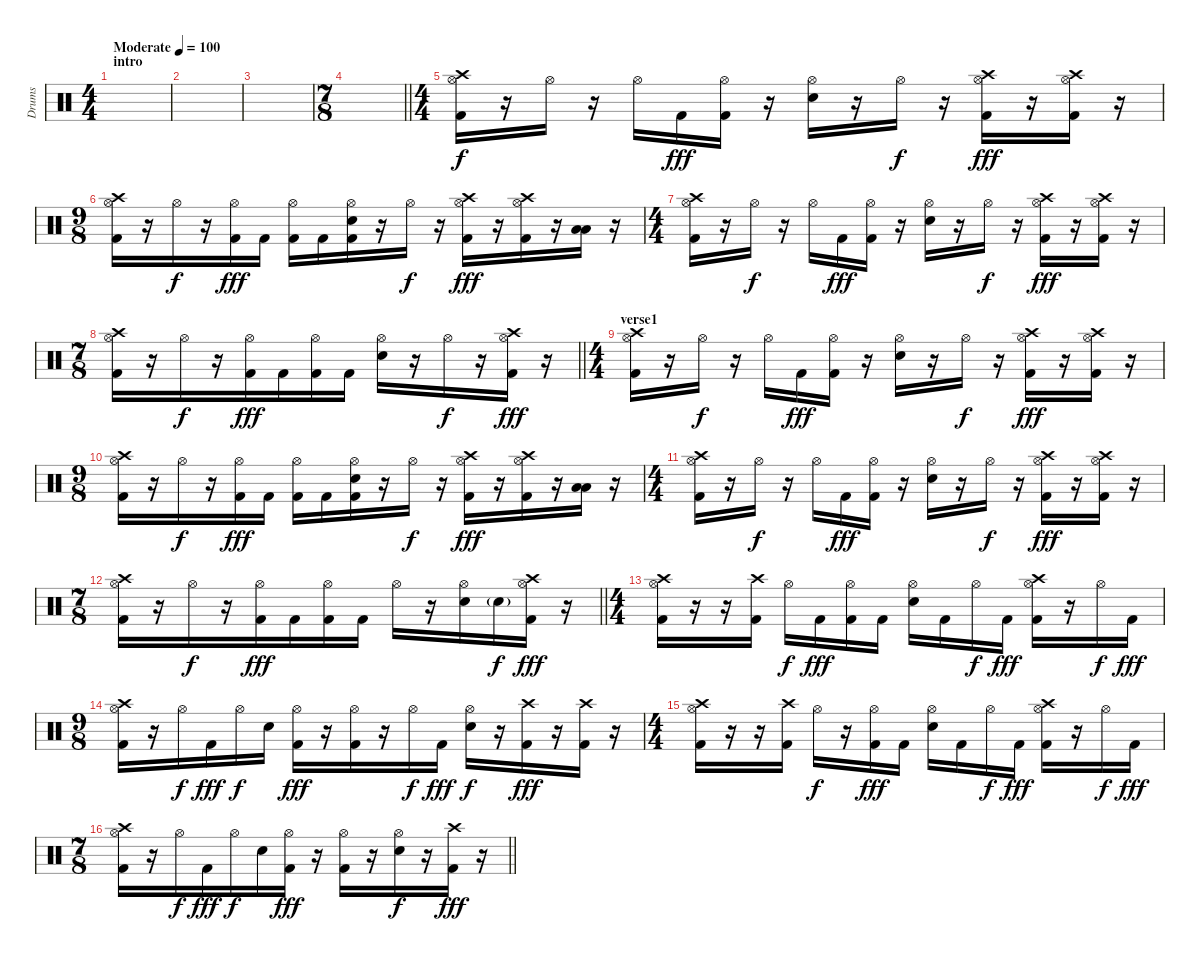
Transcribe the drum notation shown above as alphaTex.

\track ("Drums" "Drums") {instrument percussion}
\staff {score}
\articulation defaults
\ts (4 4)
\section ("" "intro")
\tempo (100 "Moderate")
\clef neutral
\ks c
|
|
|
\ts (7 8)
\barLineRight lightlight
|
\ts (4 4)
("Crash high (hit)" "Hi-Hat (open)" "Kick (hit) 2").16 r.16 "Hi-Hat (open)".16{dy f} r.16 "Hi-Hat (open)".16 "Kick (hit) 2".16{dy fff} ("Hi-Hat (open)" "Kick (hit) 2").16 r.16 ("Hi-Hat (open)" "Snare (hit) 2").16 r.16 "Hi-Hat (open)".16{dy f} r.16 ("Crash high (hit)" "Hi-Hat (open)" "Kick (hit) 2").16{dy fff} r.16 ("Crash high (hit)" "Hi-Hat (open)" "Kick (hit) 2").16 r.16 |
\ts (9 8)
("Crash high (hit)" "Hi-Hat (open)" "Kick (hit) 2").16 r.16 "Hi-Hat (open)".16{dy f} r.16 ("Hi-Hat (open)" "Kick (hit) 2").16{dy fff} "Kick (hit) 2".16 ("Hi-Hat (open)" "Kick (hit) 2").16 "Kick (hit) 2".16 ("Hi-Hat (open)" "Snare (hit) 2" "Kick (hit) 2").16 r.16 "Hi-Hat (open)".16{dy f} r.16 ("Crash high (hit)" "Hi-Hat (open)" "Kick (hit) 2").16{dy fff} r.16 ("Crash high (hit)" "Hi-Hat (open)" "Kick (hit) 2").16 r.16 ("Low Tom (hit)" "Low Floor Tom (hit)").16 r.16 |
\ts (4 4)
("Crash high (hit)" "Hi-Hat (open)" "Kick (hit) 2").16 r.16 "Hi-Hat (open)".16{dy f} r.16 "Hi-Hat (open)".16 "Kick (hit) 2".16{dy fff} ("Hi-Hat (open)" "Kick (hit) 2").16 r.16 ("Hi-Hat (open)" "Snare (hit) 2").16 r.16 "Hi-Hat (open)".16{dy f} r.16 ("Crash high (hit)" "Hi-Hat (open)" "Kick (hit) 2").16{dy fff} r.16 ("Crash high (hit)" "Hi-Hat (open)" "Kick (hit) 2").16 r.16 |
\ts (7 8)
\barLineRight lightlight
("Crash high (hit)" "Hi-Hat (open)" "Kick (hit) 2").16 r.16 "Hi-Hat (open)".16{dy f} r.16 ("Hi-Hat (open)" "Kick (hit) 2").16{dy fff} "Kick (hit) 2".16 ("Hi-Hat (open)" "Kick (hit) 2").16 "Kick (hit) 2".16 ("Hi-Hat (open)" "Snare (hit) 2").16 r.16 "Hi-Hat (open)".16{dy f} r.16 ("Crash high (hit)" "Hi-Hat (open)" "Kick (hit) 2").16{dy fff} r.16 |
\ts (4 4)
\section ("" "verse1")
("Crash high (hit)" "Hi-Hat (open)" "Kick (hit) 2").16 r.16 "Hi-Hat (open)".16{dy f} r.16 "Hi-Hat (open)".16 "Kick (hit) 2".16{dy fff} ("Hi-Hat (open)" "Kick (hit) 2").16 r.16 ("Hi-Hat (open)" "Snare (hit) 2").16 r.16 "Hi-Hat (open)".16{dy f} r.16 ("Crash high (hit)" "Hi-Hat (open)" "Kick (hit) 2").16{dy fff} r.16 ("Crash high (hit)" "Hi-Hat (open)" "Kick (hit) 2").16 r.16 |
\ts (9 8)
("Crash high (hit)" "Hi-Hat (open)" "Kick (hit) 2").16 r.16 "Hi-Hat (open)".16{dy f} r.16 ("Hi-Hat (open)" "Kick (hit) 2").16{dy fff} "Kick (hit) 2".16 ("Hi-Hat (open)" "Kick (hit) 2").16 "Kick (hit) 2".16 ("Hi-Hat (open)" "Snare (hit) 2" "Kick (hit) 2").16 r.16 "Hi-Hat (open)".16{dy f} r.16 ("Crash high (hit)" "Hi-Hat (open)" "Kick (hit) 2").16{dy fff} r.16 ("Crash high (hit)" "Hi-Hat (open)" "Kick (hit) 2").16 r.16 ("Low Tom (hit)" "Low Floor Tom (hit)").16 r.16 |
\ts (4 4)
("Crash high (hit)" "Hi-Hat (open)" "Kick (hit) 2").16 r.16 "Hi-Hat (open)".16{dy f} r.16 "Hi-Hat (open)".16 "Kick (hit) 2".16{dy fff} ("Hi-Hat (open)" "Kick (hit) 2").16 r.16 ("Hi-Hat (open)" "Snare (hit) 2").16 r.16 "Hi-Hat (open)".16{dy f} r.16 ("Crash high (hit)" "Hi-Hat (open)" "Kick (hit) 2").16{dy fff} r.16 ("Crash high (hit)" "Hi-Hat (open)" "Kick (hit) 2").16 r.16 |
\ts (7 8)
\barLineRight lightlight
("Crash high (hit)" "Hi-Hat (open)" "Kick (hit) 2").16 r.16 "Hi-Hat (open)".16{dy f} r.16 ("Hi-Hat (open)" "Kick (hit) 2").16{dy fff} "Kick (hit) 2".16 ("Hi-Hat (open)" "Kick (hit) 2").16 "Kick (hit) 2".16 "Hi-Hat (open)".16 r.16 ("Hi-Hat (open)" "Snare (hit) 2").16 "Snare (hit) 2"{g}.16{dy f} ("Crash high (hit)" "Hi-Hat (open)" "Kick (hit) 2").16{dy fff} r.16 |
\ts (4 4)
("Crash high (hit)" "Hi-Hat (open)" "Kick (hit) 2").16 r.16 r.16 ("Crash high (hit)" "Kick (hit) 2").16 "Hi-Hat (open)".16{dy f} "Kick (hit) 2".16{dy fff} ("Hi-Hat (open)" "Kick (hit) 2").16 "Kick (hit) 2".16 ("Hi-Hat (open)" "Snare (hit) 2").16 "Kick (hit) 2".16 "Hi-Hat (open)".16{dy f} "Kick (hit) 2".16{dy fff} ("Crash high (hit)" "Hi-Hat (open)" "Kick (hit) 2").16 r.16 "Hi-Hat (open)".16{dy f} "Kick (hit) 2".16{dy fff} |
\ts (9 8)
("Crash high (hit)" "Hi-Hat (open)" "Kick (hit) 2").16 r.16 "Hi-Hat (open)".16{dy f} "Kick (hit) 2".16{dy fff} "Hi-Hat (open)".16{dy f} "Snare (hit) 2".16 ("Hi-Hat (open)" "Kick (hit) 2").16{dy fff} r.16 ("Hi-Hat (open)" "Kick (hit) 2").16 r.16 "Hi-Hat (open)".16{dy f} "Kick (hit) 2".16{dy fff} ("Hi-Hat (open)" "Snare (hit) 2").16{dy f} r.16 ("Crash high (hit)" "Kick (hit) 2").16{dy fff} r.16 ("Crash high (hit)" "Kick (hit) 2").16 r.16 |
\ts (4 4)
("Crash high (hit)" "Hi-Hat (open)" "Kick (hit) 2").16 r.16 r.16 ("Crash high (hit)" "Kick (hit) 2").16 "Hi-Hat (open)".16{dy f} r.16 ("Hi-Hat (open)" "Kick (hit) 2").16{dy fff} "Kick (hit) 2".16 ("Hi-Hat (open)" "Snare (hit) 2").16 "Kick (hit) 2".16 "Hi-Hat (open)".16{dy f} "Kick (hit) 2".16{dy fff} ("Crash high (hit)" "Hi-Hat (open)" "Kick (hit) 2").16 r.16 "Hi-Hat (open)".16{dy f} "Kick (hit) 2".16{dy fff} |
\ts (7 8)
\barLineRight lightlight
("Crash high (hit)" "Hi-Hat (open)" "Kick (hit) 2").16 r.16 "Hi-Hat (open)".16{dy f} "Kick (hit) 2".16{dy fff} "Hi-Hat (open)".16{dy f} "Snare (hit) 2".16 ("Hi-Hat (open)" "Kick (hit) 2").16{dy fff} r.16 ("Hi-Hat (open)" "Kick (hit) 2").16 r.16 ("Hi-Hat (open)" "Snare (hit) 2").16{dy f} r.16 ("Crash high (hit)" "Kick (hit) 2").16{dy fff} r.16
